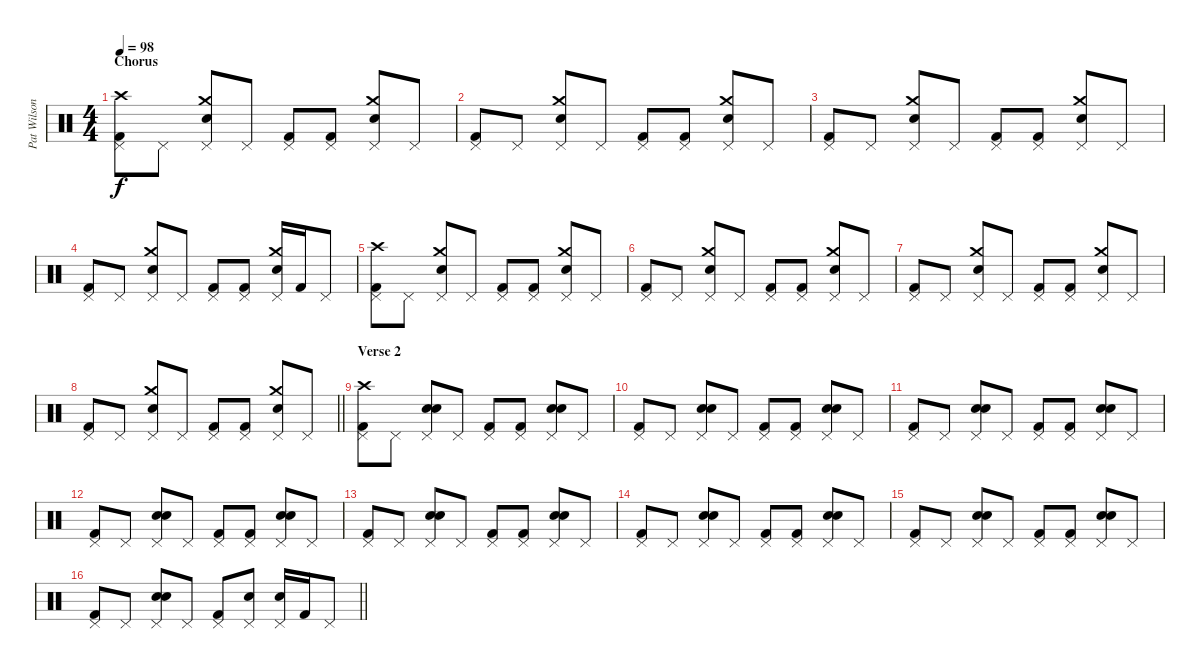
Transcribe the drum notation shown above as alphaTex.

\track ("Pat Wilson - Drums" "Pat Wilson") {instrument percussion}
\staff {score}
\articulation defaults
\ts (4 4)
\section ("" "Chorus")
\tempo 98
\clef neutral
\ks c
("Crash high (hit)" "Pedal Hi-Hat (hit)" "Kick (hit) 2").8{dy f} "Pedal Hi-Hat (hit)".8 ("Crash medium (hit)" "Pedal Hi-Hat (hit)" "Electric Snare (hit)").8 "Pedal Hi-Hat (hit)".8 ("Pedal Hi-Hat (hit)" "Kick (hit) 2").8 ("Pedal Hi-Hat (hit)" "Kick (hit) 2").8 ("Crash medium (hit)" "Pedal Hi-Hat (hit)" "Electric Snare (hit)").8 "Pedal Hi-Hat (hit)".8 |
("Pedal Hi-Hat (hit)" "Kick (hit) 2").8 "Pedal Hi-Hat (hit)".8 ("Crash medium (hit)" "Pedal Hi-Hat (hit)" "Electric Snare (hit)").8 "Pedal Hi-Hat (hit)".8 ("Pedal Hi-Hat (hit)" "Kick (hit) 2").8 ("Pedal Hi-Hat (hit)" "Kick (hit) 2").8 ("Crash medium (hit)" "Pedal Hi-Hat (hit)" "Electric Snare (hit)").8 "Pedal Hi-Hat (hit)".8 |
("Pedal Hi-Hat (hit)" "Kick (hit) 2").8 "Pedal Hi-Hat (hit)".8 ("Crash medium (hit)" "Pedal Hi-Hat (hit)" "Electric Snare (hit)").8 "Pedal Hi-Hat (hit)".8 ("Pedal Hi-Hat (hit)" "Kick (hit) 2").8 ("Pedal Hi-Hat (hit)" "Kick (hit) 2").8 ("Crash medium (hit)" "Pedal Hi-Hat (hit)" "Electric Snare (hit)").8 "Pedal Hi-Hat (hit)".8 |
("Pedal Hi-Hat (hit)" "Kick (hit) 2").8 "Pedal Hi-Hat (hit)".8 ("Crash medium (hit)" "Pedal Hi-Hat (hit)" "Electric Snare (hit)").8 "Pedal Hi-Hat (hit)".8 ("Pedal Hi-Hat (hit)" "Kick (hit) 2").8 ("Pedal Hi-Hat (hit)" "Kick (hit) 2").8 ("Crash medium (hit)" "Pedal Hi-Hat (hit)" "Electric Snare (hit)").16 "Kick (hit) 2".16 "Pedal Hi-Hat (hit)".8 |
("Crash high (hit)" "Pedal Hi-Hat (hit)" "Kick (hit) 2").8 "Pedal Hi-Hat (hit)".8 ("Crash medium (hit)" "Pedal Hi-Hat (hit)" "Electric Snare (hit)").8 "Pedal Hi-Hat (hit)".8 ("Pedal Hi-Hat (hit)" "Kick (hit) 2").8 ("Pedal Hi-Hat (hit)" "Kick (hit) 2").8 ("Crash medium (hit)" "Pedal Hi-Hat (hit)" "Electric Snare (hit)").8 "Pedal Hi-Hat (hit)".8 |
("Pedal Hi-Hat (hit)" "Kick (hit) 2").8 "Pedal Hi-Hat (hit)".8 ("Crash medium (hit)" "Pedal Hi-Hat (hit)" "Electric Snare (hit)").8 "Pedal Hi-Hat (hit)".8 ("Pedal Hi-Hat (hit)" "Kick (hit) 2").8 ("Pedal Hi-Hat (hit)" "Kick (hit) 2").8 ("Crash medium (hit)" "Pedal Hi-Hat (hit)" "Electric Snare (hit)").8 "Pedal Hi-Hat (hit)".8 |
("Pedal Hi-Hat (hit)" "Kick (hit) 2").8 "Pedal Hi-Hat (hit)".8 ("Crash medium (hit)" "Pedal Hi-Hat (hit)" "Electric Snare (hit)").8 "Pedal Hi-Hat (hit)".8 ("Pedal Hi-Hat (hit)" "Kick (hit) 2").8 ("Pedal Hi-Hat (hit)" "Kick (hit) 2").8 ("Crash medium (hit)" "Pedal Hi-Hat (hit)" "Electric Snare (hit)").8 "Pedal Hi-Hat (hit)".8 |
\barLineRight lightlight
("Pedal Hi-Hat (hit)" "Kick (hit) 2").8 "Pedal Hi-Hat (hit)".8 ("Crash medium (hit)" "Pedal Hi-Hat (hit)" "Electric Snare (hit)").8 "Pedal Hi-Hat (hit)".8 ("Pedal Hi-Hat (hit)" "Kick (hit) 2").8 ("Pedal Hi-Hat (hit)" "Kick (hit) 2").8 ("Crash medium (hit)" "Pedal Hi-Hat (hit)" "Electric Snare (hit)").8 "Pedal Hi-Hat (hit)".8 |
\section ("" "Verse 2")
("Crash high (hit)" "Pedal Hi-Hat (hit)" "Kick (hit) 2").8 "Pedal Hi-Hat (hit)".8 ("Hand Clap (hit)" "Pedal Hi-Hat (hit)" "Electric Snare (hit)").8 "Pedal Hi-Hat (hit)".8 ("Pedal Hi-Hat (hit)" "Kick (hit) 2").8 ("Pedal Hi-Hat (hit)" "Kick (hit) 2").8 ("Hand Clap (hit)" "Pedal Hi-Hat (hit)" "Electric Snare (hit)").8 "Pedal Hi-Hat (hit)".8 |
("Pedal Hi-Hat (hit)" "Kick (hit) 2").8 "Pedal Hi-Hat (hit)".8 ("Hand Clap (hit)" "Pedal Hi-Hat (hit)" "Electric Snare (hit)").8 "Pedal Hi-Hat (hit)".8 ("Pedal Hi-Hat (hit)" "Kick (hit) 2").8 ("Pedal Hi-Hat (hit)" "Kick (hit) 2").8 ("Hand Clap (hit)" "Pedal Hi-Hat (hit)" "Electric Snare (hit)").8 "Pedal Hi-Hat (hit)".8 |
("Pedal Hi-Hat (hit)" "Kick (hit) 2").8 "Pedal Hi-Hat (hit)".8 ("Hand Clap (hit)" "Pedal Hi-Hat (hit)" "Electric Snare (hit)").8 "Pedal Hi-Hat (hit)".8 ("Pedal Hi-Hat (hit)" "Kick (hit) 2").8 ("Pedal Hi-Hat (hit)" "Kick (hit) 2").8 ("Hand Clap (hit)" "Pedal Hi-Hat (hit)" "Electric Snare (hit)").8 "Pedal Hi-Hat (hit)".8 |
("Pedal Hi-Hat (hit)" "Kick (hit) 2").8 "Pedal Hi-Hat (hit)".8 ("Hand Clap (hit)" "Pedal Hi-Hat (hit)" "Electric Snare (hit)").8 "Pedal Hi-Hat (hit)".8 ("Pedal Hi-Hat (hit)" "Kick (hit) 2").8 ("Pedal Hi-Hat (hit)" "Kick (hit) 2").8 ("Hand Clap (hit)" "Pedal Hi-Hat (hit)" "Electric Snare (hit)").8 "Pedal Hi-Hat (hit)".8 |
("Pedal Hi-Hat (hit)" "Kick (hit) 2").8 "Pedal Hi-Hat (hit)".8 ("Hand Clap (hit)" "Pedal Hi-Hat (hit)" "Electric Snare (hit)").8 "Pedal Hi-Hat (hit)".8 ("Pedal Hi-Hat (hit)" "Kick (hit) 2").8 ("Pedal Hi-Hat (hit)" "Kick (hit) 2").8 ("Hand Clap (hit)" "Pedal Hi-Hat (hit)" "Electric Snare (hit)").8 "Pedal Hi-Hat (hit)".8 |
("Pedal Hi-Hat (hit)" "Kick (hit) 2").8 "Pedal Hi-Hat (hit)".8 ("Hand Clap (hit)" "Pedal Hi-Hat (hit)" "Electric Snare (hit)").8 "Pedal Hi-Hat (hit)".8 ("Pedal Hi-Hat (hit)" "Kick (hit) 2").8 ("Pedal Hi-Hat (hit)" "Kick (hit) 2").8 ("Hand Clap (hit)" "Pedal Hi-Hat (hit)" "Electric Snare (hit)").8 "Pedal Hi-Hat (hit)".8 |
("Pedal Hi-Hat (hit)" "Kick (hit) 2").8 "Pedal Hi-Hat (hit)".8 ("Hand Clap (hit)" "Pedal Hi-Hat (hit)" "Electric Snare (hit)").8 "Pedal Hi-Hat (hit)".8 ("Pedal Hi-Hat (hit)" "Kick (hit) 2").8 ("Pedal Hi-Hat (hit)" "Kick (hit) 2").8 ("Hand Clap (hit)" "Pedal Hi-Hat (hit)" "Electric Snare (hit)").8 "Pedal Hi-Hat (hit)".8 |
\barLineRight lightlight
("Pedal Hi-Hat (hit)" "Kick (hit) 2").8 "Pedal Hi-Hat (hit)".8 ("Hand Clap (hit)" "Pedal Hi-Hat (hit)" "Electric Snare (hit)").8 "Pedal Hi-Hat (hit)".8 ("Pedal Hi-Hat (hit)" "Kick (hit) 2").8 ("Pedal Hi-Hat (hit)" "Electric Snare (hit)").8 ("Pedal Hi-Hat (hit)" "Electric Snare (hit)").16 "Kick (hit) 2".16 "Pedal Hi-Hat (hit)".8
